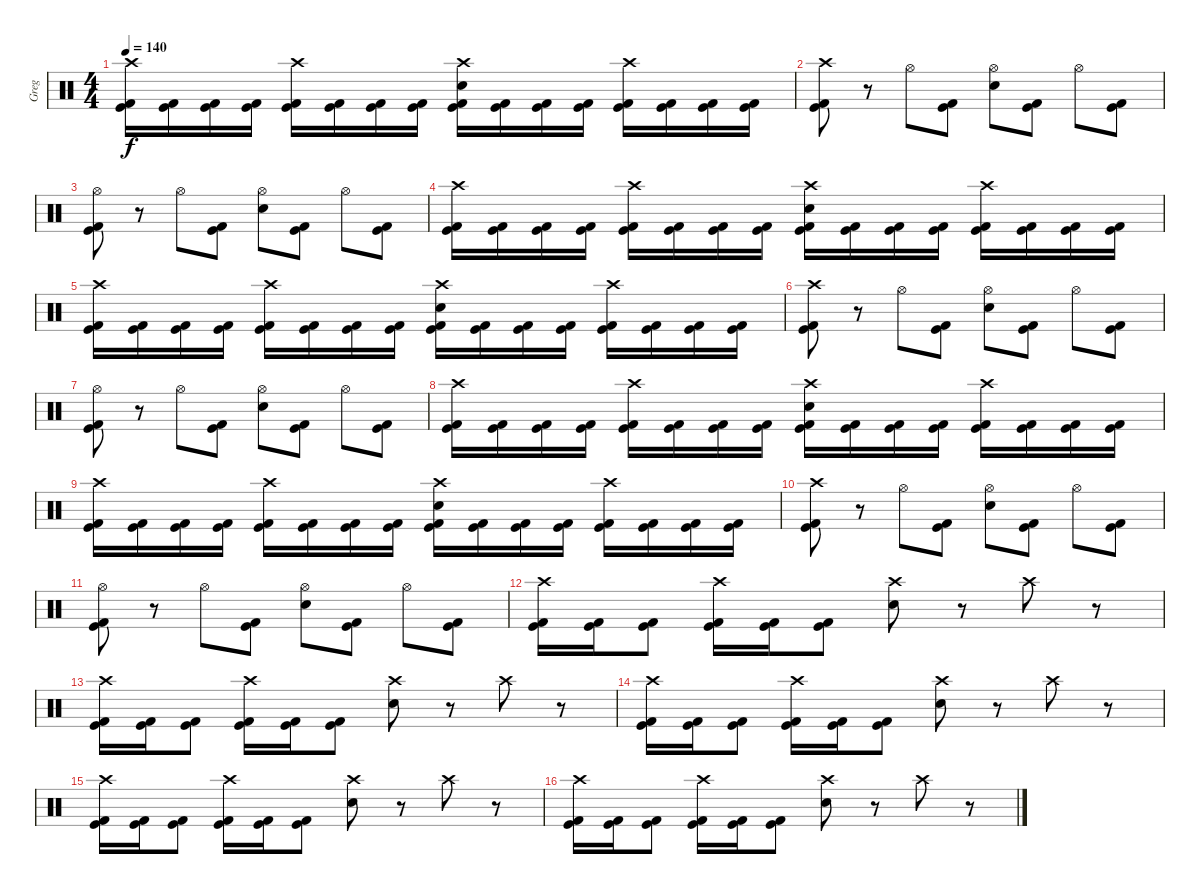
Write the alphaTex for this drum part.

\track ("Greg" "Greg") {instrument percussion}
\staff {score}
\articulation defaults
\ts (4 4)
\tempo 140
\clef neutral
\ks c
("Crash high (hit)" "Kick (hit)" "Kick (hit) 2").16{dy f} ("Kick (hit)" "Kick (hit) 2").16 ("Kick (hit)" "Kick (hit) 2").16 ("Kick (hit)" "Kick (hit) 2").16 ("Crash high (hit)" "Kick (hit)" "Kick (hit) 2").16 ("Kick (hit)" "Kick (hit) 2").16 ("Kick (hit)" "Kick (hit) 2").16 ("Kick (hit)" "Kick (hit) 2").16 ("Crash high (hit)" "Snare (hit) 2" "Kick (hit)" "Kick (hit) 2").16 ("Kick (hit)" "Kick (hit) 2").16 ("Kick (hit)" "Kick (hit) 2").16 ("Kick (hit)" "Kick (hit) 2").16 ("Crash high (hit)" "Kick (hit)" "Kick (hit) 2").16 ("Kick (hit)" "Kick (hit) 2").16 ("Kick (hit)" "Kick (hit) 2").16 ("Kick (hit)" "Kick (hit) 2").16 |
("Crash high (hit)" "Kick (hit)" "Kick (hit) 2").8 r.8 "Hi-Hat (open)".8 ("Kick (hit)" "Kick (hit) 2").8 ("Hi-Hat (open)" "Snare (hit) 2").8 ("Kick (hit)" "Kick (hit) 2").8 "Hi-Hat (open)".8 ("Kick (hit)" "Kick (hit) 2").8 |
("Hi-Hat (open)" "Kick (hit)" "Kick (hit) 2").8 r.8 "Hi-Hat (open)".8 ("Kick (hit)" "Kick (hit) 2").8 ("Hi-Hat (open)" "Snare (hit) 2").8 ("Kick (hit)" "Kick (hit) 2").8 "Hi-Hat (open)".8 ("Kick (hit)" "Kick (hit) 2").8 |
("Crash high (hit)" "Kick (hit)" "Kick (hit) 2").16 ("Kick (hit)" "Kick (hit) 2").16 ("Kick (hit)" "Kick (hit) 2").16 ("Kick (hit)" "Kick (hit) 2").16 ("Crash high (hit)" "Kick (hit)" "Kick (hit) 2").16 ("Kick (hit)" "Kick (hit) 2").16 ("Kick (hit)" "Kick (hit) 2").16 ("Kick (hit)" "Kick (hit) 2").16 ("Crash high (hit)" "Snare (hit) 2" "Kick (hit)" "Kick (hit) 2").16 ("Kick (hit)" "Kick (hit) 2").16 ("Kick (hit)" "Kick (hit) 2").16 ("Kick (hit)" "Kick (hit) 2").16 ("Crash high (hit)" "Kick (hit)" "Kick (hit) 2").16 ("Kick (hit)" "Kick (hit) 2").16 ("Kick (hit)" "Kick (hit) 2").16 ("Kick (hit)" "Kick (hit) 2").16 |
("Crash high (hit)" "Kick (hit)" "Kick (hit) 2").16 ("Kick (hit)" "Kick (hit) 2").16 ("Kick (hit)" "Kick (hit) 2").16 ("Kick (hit)" "Kick (hit) 2").16 ("Crash high (hit)" "Kick (hit)" "Kick (hit) 2").16 ("Kick (hit)" "Kick (hit) 2").16 ("Kick (hit)" "Kick (hit) 2").16 ("Kick (hit)" "Kick (hit) 2").16 ("Crash high (hit)" "Snare (hit) 2" "Kick (hit)" "Kick (hit) 2").16 ("Kick (hit)" "Kick (hit) 2").16 ("Kick (hit)" "Kick (hit) 2").16 ("Kick (hit)" "Kick (hit) 2").16 ("Crash high (hit)" "Kick (hit)" "Kick (hit) 2").16 ("Kick (hit)" "Kick (hit) 2").16 ("Kick (hit)" "Kick (hit) 2").16 ("Kick (hit)" "Kick (hit) 2").16 |
("Crash high (hit)" "Kick (hit)" "Kick (hit) 2").8 r.8 "Hi-Hat (open)".8 ("Kick (hit)" "Kick (hit) 2").8 ("Hi-Hat (open)" "Snare (hit) 2").8 ("Kick (hit)" "Kick (hit) 2").8 "Hi-Hat (open)".8 ("Kick (hit)" "Kick (hit) 2").8 |
("Hi-Hat (open)" "Kick (hit)" "Kick (hit) 2").8 r.8 "Hi-Hat (open)".8 ("Kick (hit)" "Kick (hit) 2").8 ("Hi-Hat (open)" "Snare (hit) 2").8 ("Kick (hit)" "Kick (hit) 2").8 "Hi-Hat (open)".8 ("Kick (hit)" "Kick (hit) 2").8 |
("Crash high (hit)" "Kick (hit)" "Kick (hit) 2").16 ("Kick (hit)" "Kick (hit) 2").16 ("Kick (hit)" "Kick (hit) 2").16 ("Kick (hit)" "Kick (hit) 2").16 ("Crash high (hit)" "Kick (hit)" "Kick (hit) 2").16 ("Kick (hit)" "Kick (hit) 2").16 ("Kick (hit)" "Kick (hit) 2").16 ("Kick (hit)" "Kick (hit) 2").16 ("Crash high (hit)" "Snare (hit) 2" "Kick (hit)" "Kick (hit) 2").16 ("Kick (hit)" "Kick (hit) 2").16 ("Kick (hit)" "Kick (hit) 2").16 ("Kick (hit)" "Kick (hit) 2").16 ("Crash high (hit)" "Kick (hit)" "Kick (hit) 2").16 ("Kick (hit)" "Kick (hit) 2").16 ("Kick (hit)" "Kick (hit) 2").16 ("Kick (hit)" "Kick (hit) 2").16 |
("Crash high (hit)" "Kick (hit)" "Kick (hit) 2").16 ("Kick (hit)" "Kick (hit) 2").16 ("Kick (hit)" "Kick (hit) 2").16 ("Kick (hit)" "Kick (hit) 2").16 ("Crash high (hit)" "Kick (hit)" "Kick (hit) 2").16 ("Kick (hit)" "Kick (hit) 2").16 ("Kick (hit)" "Kick (hit) 2").16 ("Kick (hit)" "Kick (hit) 2").16 ("Crash high (hit)" "Snare (hit) 2" "Kick (hit)" "Kick (hit) 2").16 ("Kick (hit)" "Kick (hit) 2").16 ("Kick (hit)" "Kick (hit) 2").16 ("Kick (hit)" "Kick (hit) 2").16 ("Crash high (hit)" "Kick (hit)" "Kick (hit) 2").16 ("Kick (hit)" "Kick (hit) 2").16 ("Kick (hit)" "Kick (hit) 2").16 ("Kick (hit)" "Kick (hit) 2").16 |
("Crash high (hit)" "Kick (hit)" "Kick (hit) 2").8 r.8 "Hi-Hat (open)".8 ("Kick (hit)" "Kick (hit) 2").8 ("Hi-Hat (open)" "Snare (hit) 2").8 ("Kick (hit)" "Kick (hit) 2").8 "Hi-Hat (open)".8 ("Kick (hit)" "Kick (hit) 2").8 |
("Hi-Hat (open)" "Kick (hit)" "Kick (hit) 2").8 r.8 "Hi-Hat (open)".8 ("Kick (hit)" "Kick (hit) 2").8 ("Hi-Hat (open)" "Snare (hit) 2").8 ("Kick (hit)" "Kick (hit) 2").8 "Hi-Hat (open)".8 ("Kick (hit)" "Kick (hit) 2").8 |
("Crash high (hit)" "Kick (hit)" "Kick (hit) 2").16 ("Kick (hit)" "Kick (hit) 2").16 ("Kick (hit)" "Kick (hit) 2").8 ("Crash high (hit)" "Kick (hit)" "Kick (hit) 2").16 ("Kick (hit)" "Kick (hit) 2").16 ("Kick (hit)" "Kick (hit) 2").8 ("Crash high (hit)" "Snare (hit) 2").8 r.8 "Crash high (hit)".8 r.8 |
("Crash high (hit)" "Kick (hit)" "Kick (hit) 2").16 ("Kick (hit)" "Kick (hit) 2").16 ("Kick (hit)" "Kick (hit) 2").8 ("Crash high (hit)" "Kick (hit)" "Kick (hit) 2").16 ("Kick (hit)" "Kick (hit) 2").16 ("Kick (hit)" "Kick (hit) 2").8 ("Crash high (hit)" "Snare (hit) 2").8 r.8 "Crash high (hit)".8 r.8 |
("Crash high (hit)" "Kick (hit)" "Kick (hit) 2").16 ("Kick (hit)" "Kick (hit) 2").16 ("Kick (hit)" "Kick (hit) 2").8 ("Crash high (hit)" "Kick (hit)" "Kick (hit) 2").16 ("Kick (hit)" "Kick (hit) 2").16 ("Kick (hit)" "Kick (hit) 2").8 ("Crash high (hit)" "Snare (hit) 2").8 r.8 "Crash high (hit)".8 r.8 |
("Crash high (hit)" "Kick (hit)" "Kick (hit) 2").16 ("Kick (hit)" "Kick (hit) 2").16 ("Kick (hit)" "Kick (hit) 2").8 ("Crash high (hit)" "Kick (hit)" "Kick (hit) 2").16 ("Kick (hit)" "Kick (hit) 2").16 ("Kick (hit)" "Kick (hit) 2").8 ("Crash high (hit)" "Snare (hit) 2").8 r.8 "Crash high (hit)".8 r.8 |
("Crash high (hit)" "Kick (hit)" "Kick (hit) 2").16 ("Kick (hit)" "Kick (hit) 2").16 ("Kick (hit)" "Kick (hit) 2").8 ("Crash high (hit)" "Kick (hit)" "Kick (hit) 2").16 ("Kick (hit)" "Kick (hit) 2").16 ("Kick (hit)" "Kick (hit) 2").8 ("Crash high (hit)" "Snare (hit) 2").8 r.8 "Crash high (hit)".8 r.8
